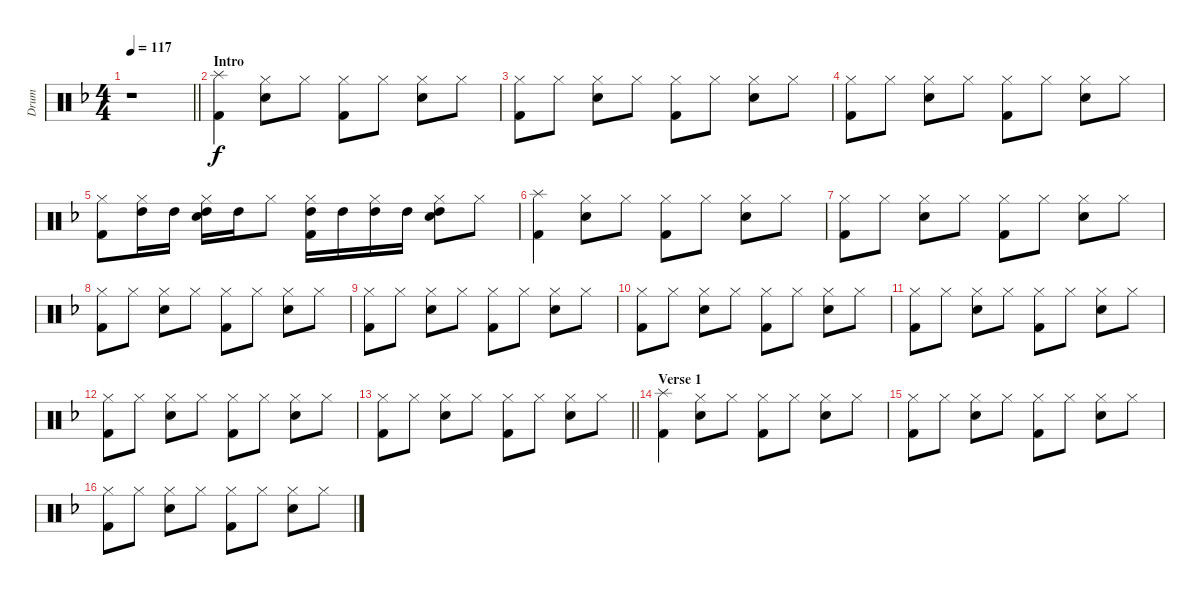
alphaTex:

\track ("Drum" "Drum") {instrument percussion}
\staff {score}
\articulation defaults
\ts (4 4)
\tempo 117
\clef neutral
\barLineRight lightlight
\ks f
r.1{dy f} |
\section ("" "Intro")
("Kick (hit) 2" "Splash (hit)").4 ("Snare (hit) 2" "Hi-Hat (closed)").8 "Hi-Hat (closed)".8 ("Kick (hit) 2" "Hi-Hat (closed)").8 "Hi-Hat (closed)".8 ("Snare (hit) 2" "Hi-Hat (closed)").8 "Hi-Hat (closed)".8 |
("Kick (hit) 2" "Hi-Hat (closed)").8 "Hi-Hat (closed)".8 ("Snare (hit) 2" "Hi-Hat (closed)").8 "Hi-Hat (closed)".8 ("Kick (hit) 2" "Hi-Hat (closed)").8 "Hi-Hat (closed)".8 ("Snare (hit) 2" "Hi-Hat (closed)").8 "Hi-Hat (closed)".8 |
("Kick (hit) 2" "Hi-Hat (closed)").8 "Hi-Hat (closed)".8 ("Snare (hit) 2" "Hi-Hat (closed)").8 "Hi-Hat (closed)".8 ("Kick (hit) 2" "Hi-Hat (closed)").8 "Hi-Hat (closed)".8 ("Snare (hit) 2" "Hi-Hat (closed)").8 "Hi-Hat (closed)".8 |
("Kick (hit) 2" "Hi-Hat (closed)").8 ("High Tom (hit)" "Hi-Hat (closed)").16 "High Tom (hit)".16 ("Snare (hit) 2" "High Tom (hit)" "Hi-Hat (closed)").16 "High Tom (hit)".16 "Hi-Hat (closed)".8 ("Kick (hit) 2" "High Tom (hit)" "Hi-Hat (closed)").16 "High Tom (hit)".16 ("High Tom (hit)" "Hi-Hat (closed)").16 "High Tom (hit)".16 ("Snare (hit) 2" "High Tom (hit)" "Hi-Hat (closed)").8 "Hi-Hat (closed)".8 |
("Kick (hit) 2" "Splash (hit)").4 ("Snare (hit) 2" "Hi-Hat (closed)").8 "Hi-Hat (closed)".8 ("Kick (hit) 2" "Hi-Hat (closed)").8 "Hi-Hat (closed)".8 ("Snare (hit) 2" "Hi-Hat (closed)").8 "Hi-Hat (closed)".8 |
("Kick (hit) 2" "Hi-Hat (closed)").8 "Hi-Hat (closed)".8 ("Snare (hit) 2" "Hi-Hat (closed)").8 "Hi-Hat (closed)".8 ("Kick (hit) 2" "Hi-Hat (closed)").8 "Hi-Hat (closed)".8 ("Snare (hit) 2" "Hi-Hat (closed)").8 "Hi-Hat (closed)".8 |
("Kick (hit) 2" "Hi-Hat (closed)").8 "Hi-Hat (closed)".8 ("Snare (hit) 2" "Hi-Hat (closed)").8 "Hi-Hat (closed)".8 ("Kick (hit) 2" "Hi-Hat (closed)").8 "Hi-Hat (closed)".8 ("Snare (hit) 2" "Hi-Hat (closed)").8 "Hi-Hat (closed)".8 |
("Kick (hit) 2" "Hi-Hat (closed)").8 "Hi-Hat (closed)".8 ("Snare (hit) 2" "Hi-Hat (closed)").8 "Hi-Hat (closed)".8 ("Kick (hit) 2" "Hi-Hat (closed)").8 "Hi-Hat (closed)".8 ("Snare (hit) 2" "Hi-Hat (closed)").8 "Hi-Hat (closed)".8 |
("Kick (hit) 2" "Hi-Hat (closed)").8 "Hi-Hat (closed)".8 ("Snare (hit) 2" "Hi-Hat (closed)").8 "Hi-Hat (closed)".8 ("Kick (hit) 2" "Hi-Hat (closed)").8 "Hi-Hat (closed)".8 ("Snare (hit) 2" "Hi-Hat (closed)").8 "Hi-Hat (closed)".8 |
("Kick (hit) 2" "Hi-Hat (closed)").8 "Hi-Hat (closed)".8 ("Snare (hit) 2" "Hi-Hat (closed)").8 "Hi-Hat (closed)".8 ("Kick (hit) 2" "Hi-Hat (closed)").8 "Hi-Hat (closed)".8 ("Snare (hit) 2" "Hi-Hat (closed)").8 "Hi-Hat (closed)".8 |
("Kick (hit) 2" "Hi-Hat (closed)").8 "Hi-Hat (closed)".8 ("Snare (hit) 2" "Hi-Hat (closed)").8 "Hi-Hat (closed)".8 ("Kick (hit) 2" "Hi-Hat (closed)").8 "Hi-Hat (closed)".8 ("Snare (hit) 2" "Hi-Hat (closed)").8 "Hi-Hat (closed)".8 |
\barLineRight lightlight
("Kick (hit) 2" "Hi-Hat (closed)").8 "Hi-Hat (closed)".8 ("Snare (hit) 2" "Hi-Hat (closed)").8 "Hi-Hat (closed)".8 ("Kick (hit) 2" "Hi-Hat (closed)").8 "Hi-Hat (closed)".8 ("Snare (hit) 2" "Hi-Hat (closed)").8 "Hi-Hat (closed)".8 |
\section ("" "Verse 1")
("Kick (hit) 2" "Splash (hit)").4 ("Snare (hit) 2" "Hi-Hat (closed)").8 "Hi-Hat (closed)".8 ("Kick (hit) 2" "Hi-Hat (closed)").8 "Hi-Hat (closed)".8 ("Snare (hit) 2" "Hi-Hat (closed)").8 "Hi-Hat (closed)".8 |
("Kick (hit) 2" "Hi-Hat (closed)").8 "Hi-Hat (closed)".8 ("Snare (hit) 2" "Hi-Hat (closed)").8 "Hi-Hat (closed)".8 ("Kick (hit) 2" "Hi-Hat (closed)").8 "Hi-Hat (closed)".8 ("Snare (hit) 2" "Hi-Hat (closed)").8 "Hi-Hat (closed)".8 |
("Kick (hit) 2" "Hi-Hat (closed)").8 "Hi-Hat (closed)".8 ("Snare (hit) 2" "Hi-Hat (closed)").8 "Hi-Hat (closed)".8 ("Kick (hit) 2" "Hi-Hat (closed)").8 "Hi-Hat (closed)".8 ("Snare (hit) 2" "Hi-Hat (closed)").8 "Hi-Hat (closed)".8
